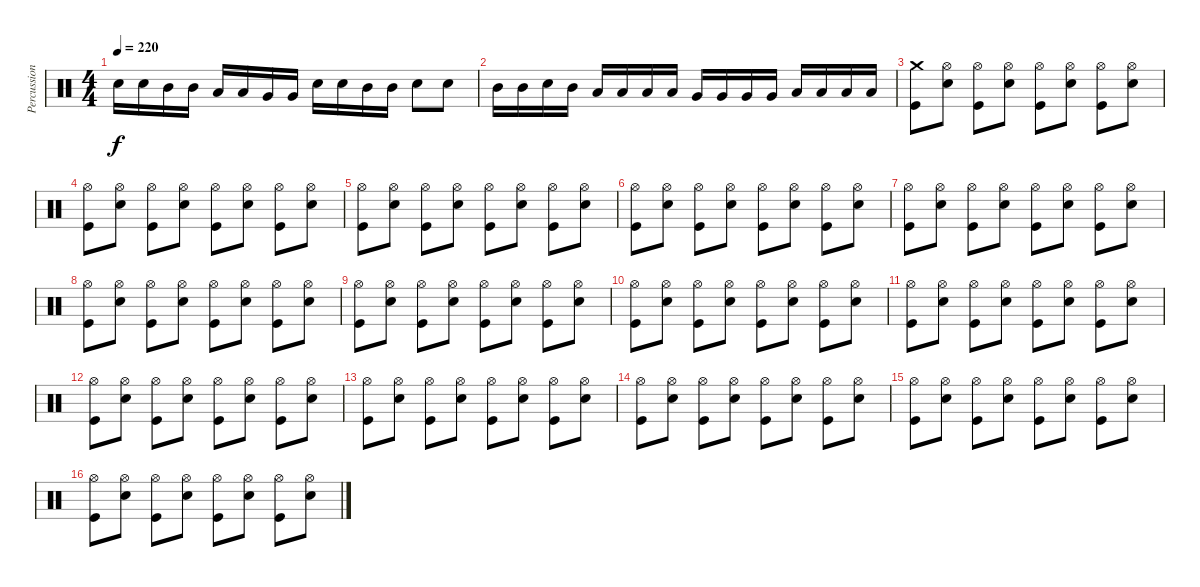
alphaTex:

\track ("Percussions" "Percussion") {instrument percussion}
\staff {score}
\articulation defaults
\ts (4 4)
\tempo 220
\clef neutral
\ks c "Electric Snare (hit)".16{dy f} "Electric Snare (hit)".16 "Mid Tom (hit)".16 "Mid Tom (hit)".16 "Low Tom (hit)".16 "Low Tom (hit)".16 "Very Low Tom (hit)".16 "Very Low Tom (hit)".16 "Electric Snare (hit)".16 "Electric Snare (hit)".16 "Mid Tom (hit)".16 "Mid Tom (hit)".16 "Electric Snare (hit)".8 "Electric Snare (hit)".8
|
"Mid Tom (hit)".16 "Mid Tom (hit)".16 "Electric Snare (hit)".16 "Mid Tom (hit)".16 "Low Tom (hit)".16 "Low Tom (hit)".16 "Low Tom (hit)".16 "Low Tom (hit)".16 "Very Low Tom (hit)".16 "Very Low Tom (hit)".16 "Very Low Tom (hit)".16 "Very Low Tom (hit)".16 "Low Floor Tom (hit)".16 "Low Floor Tom (hit)".16 "Low Floor Tom (hit)".16 "Low Floor Tom (hit)".16 |
("Kick (hit)" "Crash medium (hit)").8 ("Electric Snare (hit)" "Hi-Hat (open)").8 ("Kick (hit)" "Hi-Hat (open)").8 ("Electric Snare (hit)" "Hi-Hat (open)").8 ("Kick (hit)" "Hi-Hat (open)").8 ("Electric Snare (hit)" "Hi-Hat (open)").8 ("Kick (hit)" "Hi-Hat (open)").8 ("Electric Snare (hit)" "Hi-Hat (open)").8 |
("Kick (hit)" "Hi-Hat (open)").8 ("Electric Snare (hit)" "Hi-Hat (open)").8 ("Kick (hit)" "Hi-Hat (open)").8 ("Electric Snare (hit)" "Hi-Hat (open)").8 ("Kick (hit)" "Hi-Hat (open)").8 ("Electric Snare (hit)" "Hi-Hat (open)").8 ("Kick (hit)" "Hi-Hat (open)").8 ("Electric Snare (hit)" "Hi-Hat (open)").8 |
("Kick (hit)" "Hi-Hat (open)").8 ("Electric Snare (hit)" "Hi-Hat (open)").8 ("Kick (hit)" "Hi-Hat (open)").8 ("Electric Snare (hit)" "Hi-Hat (open)").8 ("Kick (hit)" "Hi-Hat (open)").8 ("Electric Snare (hit)" "Hi-Hat (open)").8 ("Kick (hit)" "Hi-Hat (open)").8 ("Electric Snare (hit)" "Hi-Hat (open)").8 |
("Kick (hit)" "Hi-Hat (open)").8 ("Electric Snare (hit)" "Hi-Hat (open)").8 ("Kick (hit)" "Hi-Hat (open)").8 ("Electric Snare (hit)" "Hi-Hat (open)").8 ("Kick (hit)" "Hi-Hat (open)").8 ("Electric Snare (hit)" "Hi-Hat (open)").8 ("Kick (hit)" "Hi-Hat (open)").8 ("Electric Snare (hit)" "Hi-Hat (open)").8 |
("Kick (hit)" "Hi-Hat (open)").8 ("Electric Snare (hit)" "Hi-Hat (open)").8 ("Kick (hit)" "Hi-Hat (open)").8 ("Electric Snare (hit)" "Hi-Hat (open)").8 ("Kick (hit)" "Hi-Hat (open)").8 ("Electric Snare (hit)" "Hi-Hat (open)").8 ("Kick (hit)" "Hi-Hat (open)").8 ("Electric Snare (hit)" "Hi-Hat (open)").8 |
("Kick (hit)" "Hi-Hat (open)").8 ("Electric Snare (hit)" "Hi-Hat (open)").8 ("Kick (hit)" "Hi-Hat (open)").8 ("Electric Snare (hit)" "Hi-Hat (open)").8 ("Kick (hit)" "Hi-Hat (open)").8 ("Electric Snare (hit)" "Hi-Hat (open)").8 ("Kick (hit)" "Hi-Hat (open)").8 ("Electric Snare (hit)" "Hi-Hat (open)").8 |
("Kick (hit)" "Hi-Hat (open)").8 ("Electric Snare (hit)" "Hi-Hat (open)").8 ("Kick (hit)" "Hi-Hat (open)").8 ("Electric Snare (hit)" "Hi-Hat (open)").8 ("Kick (hit)" "Hi-Hat (open)").8 ("Electric Snare (hit)" "Hi-Hat (open)").8 ("Kick (hit)" "Hi-Hat (open)").8 ("Electric Snare (hit)" "Hi-Hat (open)").8 |
("Kick (hit)" "Hi-Hat (open)").8 ("Electric Snare (hit)" "Hi-Hat (open)").8 ("Kick (hit)" "Hi-Hat (open)").8 ("Electric Snare (hit)" "Hi-Hat (open)").8 ("Kick (hit)" "Hi-Hat (open)").8 ("Electric Snare (hit)" "Hi-Hat (open)").8 ("Kick (hit)" "Hi-Hat (open)").8 ("Electric Snare (hit)" "Hi-Hat (open)").8 |
("Kick (hit)" "Hi-Hat (open)").8 ("Electric Snare (hit)" "Hi-Hat (open)").8 ("Kick (hit)" "Hi-Hat (open)").8 ("Electric Snare (hit)" "Hi-Hat (open)").8 ("Kick (hit)" "Hi-Hat (open)").8 ("Electric Snare (hit)" "Hi-Hat (open)").8 ("Kick (hit)" "Hi-Hat (open)").8 ("Electric Snare (hit)" "Hi-Hat (open)").8 |
("Kick (hit)" "Hi-Hat (open)").8 ("Electric Snare (hit)" "Hi-Hat (open)").8 ("Kick (hit)" "Hi-Hat (open)").8 ("Electric Snare (hit)" "Hi-Hat (open)").8 ("Kick (hit)" "Hi-Hat (open)").8 ("Electric Snare (hit)" "Hi-Hat (open)").8 ("Kick (hit)" "Hi-Hat (open)").8 ("Electric Snare (hit)" "Hi-Hat (open)").8 |
("Kick (hit)" "Hi-Hat (open)").8 ("Electric Snare (hit)" "Hi-Hat (open)").8 ("Kick (hit)" "Hi-Hat (open)").8 ("Electric Snare (hit)" "Hi-Hat (open)").8 ("Kick (hit)" "Hi-Hat (open)").8 ("Electric Snare (hit)" "Hi-Hat (open)").8 ("Kick (hit)" "Hi-Hat (open)").8 ("Electric Snare (hit)" "Hi-Hat (open)").8 |
("Kick (hit)" "Hi-Hat (open)").8 ("Electric Snare (hit)" "Hi-Hat (open)").8 ("Kick (hit)" "Hi-Hat (open)").8 ("Electric Snare (hit)" "Hi-Hat (open)").8 ("Kick (hit)" "Hi-Hat (open)").8 ("Electric Snare (hit)" "Hi-Hat (open)").8 ("Kick (hit)" "Hi-Hat (open)").8 ("Electric Snare (hit)" "Hi-Hat (open)").8 |
("Kick (hit)" "Hi-Hat (open)").8 ("Electric Snare (hit)" "Hi-Hat (open)").8 ("Kick (hit)" "Hi-Hat (open)").8 ("Electric Snare (hit)" "Hi-Hat (open)").8 ("Kick (hit)" "Hi-Hat (open)").8 ("Electric Snare (hit)" "Hi-Hat (open)").8 ("Kick (hit)" "Hi-Hat (open)").8 ("Electric Snare (hit)" "Hi-Hat (open)").8 |
("Kick (hit)" "Hi-Hat (open)").8 ("Electric Snare (hit)" "Hi-Hat (open)").8 ("Kick (hit)" "Hi-Hat (open)").8 ("Electric Snare (hit)" "Hi-Hat (open)").8 ("Kick (hit)" "Hi-Hat (open)").8 ("Electric Snare (hit)" "Hi-Hat (open)").8 ("Kick (hit)" "Hi-Hat (open)").8 ("Electric Snare (hit)" "Hi-Hat (open)").8
